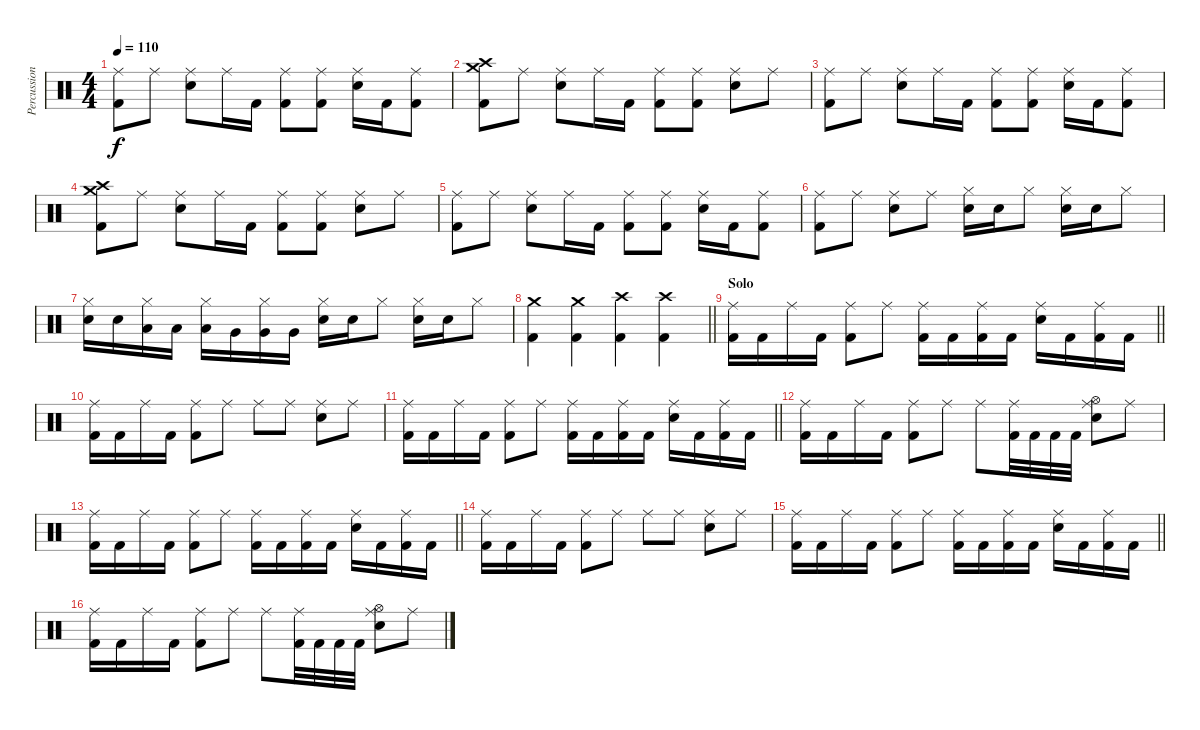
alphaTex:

\track ("Percussion" "Percussion") {instrument percussion}
\staff {score}
\articulation defaults
\ts (4 4)
\tempo 110
\clef neutral
\ks c
("Ride (middle)" "Kick (hit) 2").8{dy f} "Ride (middle)".8 ("Ride (middle)" "Snare (hit) 2").8 "Ride (middle)".16 "Kick (hit) 2".16 ("Ride (middle)" "Kick (hit) 2").8 ("Ride (middle)" "Kick (hit) 2").8 ("Ride (middle)" "Snare (hit) 2").16 "Kick (hit) 2".16 ("Ride (middle)" "Kick (hit) 2").8 |
("Crash medium (hit)" "Crash high (hit)" "Kick (hit) 2").8 "Ride (middle)".8 ("Ride (middle)" "Snare (hit) 2").8 "Ride (middle)".16 "Kick (hit) 2".16 ("Ride (middle)" "Kick (hit) 2").8 ("Ride (middle)" "Kick (hit) 2").8 ("Ride (middle)" "Snare (hit) 2").8 "Ride (middle)".8 |
("Ride (middle)" "Kick (hit) 2").8 "Ride (middle)".8 ("Ride (middle)" "Snare (hit) 2").8 "Ride (middle)".16 "Kick (hit) 2".16 ("Ride (middle)" "Kick (hit) 2").8 ("Ride (middle)" "Kick (hit) 2").8 ("Ride (middle)" "Snare (hit) 2").16 "Kick (hit) 2".16 ("Ride (middle)" "Kick (hit) 2").8 |
("Crash medium (hit)" "Crash high (hit)" "Kick (hit) 2").8 "Ride (middle)".8 ("Ride (middle)" "Snare (hit) 2").8 "Ride (middle)".16 "Kick (hit) 2".16 ("Ride (middle)" "Kick (hit) 2").8 ("Ride (middle)" "Kick (hit) 2").8 ("Ride (middle)" "Snare (hit) 2").8 "Ride (middle)".8 |
("Ride (middle)" "Kick (hit) 2").8 "Ride (middle)".8 ("Ride (middle)" "Snare (hit) 2").8 "Ride (middle)".16 "Kick (hit) 2".16 ("Ride (middle)" "Kick (hit) 2").8 ("Ride (middle)" "Kick (hit) 2").8 ("Ride (middle)" "Snare (hit) 2").16 "Kick (hit) 2".16 ("Ride (middle)" "Kick (hit) 2").8 |
("Ride (middle)" "Kick (hit) 2").8 "Ride (middle)".8 ("Ride (middle)" "Snare (hit) 2").8 "Ride (middle)".8 ("Hi-Hat (closed)" "Snare (hit) 2").16 "Snare (hit) 2".16 "Hi-Hat (closed)".8 ("Hi-Hat (closed)" "Snare (hit) 2").16 "Snare (hit) 2".16 "Hi-Hat (closed)".8 |
("Hi-Hat (closed)" "Snare (hit) 2").16 "Snare (hit) 2".16 ("Hi-Hat (closed)" "Low Tom (hit)").16 "Low Tom (hit)".16 ("Hi-Hat (closed)" "Low Tom (hit)").16 "Very Low Tom (hit)".16 ("Hi-Hat (closed)" "Very Low Tom (hit)").16 "Very Low Tom (hit)".16 ("Hi-Hat (closed)" "Snare (hit) 2").16 "Snare (hit) 2".16 "Hi-Hat (closed)".8 ("Hi-Hat (closed)" "Snare (hit) 2").16 "Snare (hit) 2".16 "Hi-Hat (closed)".8 |
\barLineRight lightlight
("Crash medium (hit)" "Kick (hit) 2").4 ("Crash medium (hit)" "Kick (hit) 2").4 ("Crash high (hit)" "Kick (hit) 2").4 ("Crash high (hit)" "Kick (hit) 2").4 |
\section ("" "Solo")
\barLineRight lightlight
("Ride (middle)" "Kick (hit) 2").16 "Kick (hit) 2".16 "Ride (middle)".16 "Kick (hit) 2".16 ("Ride (middle)" "Kick (hit) 2").8 "Ride (middle)".8 ("Ride (middle)" "Kick (hit) 2").16 "Kick (hit) 2".16 ("Ride (middle)" "Kick (hit) 2").16 "Kick (hit) 2".16 ("Ride (middle)" "Snare (hit) 2").16 "Kick (hit) 2".16 ("Ride (middle)" "Kick (hit) 2").16 "Kick (hit) 2".16 |
("Ride (middle)" "Kick (hit) 2").16 "Kick (hit) 2".16 "Ride (middle)".16 "Kick (hit) 2".16 ("Ride (middle)" "Kick (hit) 2").8 "Ride (middle)".8 "Ride (middle)".8 "Ride (middle)".8 ("Ride (middle)" "Snare (hit) 2").8 "Ride (middle)".8 |
\barLineRight lightlight
("Ride (middle)" "Kick (hit) 2").16 "Kick (hit) 2".16 "Ride (middle)".16 "Kick (hit) 2".16 ("Ride (middle)" "Kick (hit) 2").8 "Ride (middle)".8 ("Ride (middle)" "Kick (hit) 2").16 "Kick (hit) 2".16 ("Ride (middle)" "Kick (hit) 2").16 "Kick (hit) 2".16 ("Ride (middle)" "Snare (hit) 2").16 "Kick (hit) 2".16 ("Ride (middle)" "Kick (hit) 2").16 "Kick (hit) 2".16 |
("Ride (middle)" "Kick (hit) 2").16 "Kick (hit) 2".16 "Ride (middle)".16 "Kick (hit) 2".16 ("Ride (middle)" "Kick (hit) 2").8 "Ride (middle)".8 "Ride (middle)".8 ("Ride (middle)" "Kick (hit) 2").32 "Kick (hit) 2".32 "Kick (hit) 2".32 "Kick (hit) 2".32 ("Ride (middle)" "Hi-Hat (open)" "Snare (hit) 2").8 "Ride (middle)".8 |
\barLineRight lightlight
("Ride (middle)" "Kick (hit) 2").16 "Kick (hit) 2".16 "Ride (middle)".16 "Kick (hit) 2".16 ("Ride (middle)" "Kick (hit) 2").8 "Ride (middle)".8 ("Ride (middle)" "Kick (hit) 2").16 "Kick (hit) 2".16 ("Ride (middle)" "Kick (hit) 2").16 "Kick (hit) 2".16 ("Ride (middle)" "Snare (hit) 2").16 "Kick (hit) 2".16 ("Ride (middle)" "Kick (hit) 2").16 "Kick (hit) 2".16 |
("Ride (middle)" "Kick (hit) 2").16 "Kick (hit) 2".16 "Ride (middle)".16 "Kick (hit) 2".16 ("Ride (middle)" "Kick (hit) 2").8 "Ride (middle)".8 "Ride (middle)".8 "Ride (middle)".8 ("Ride (middle)" "Snare (hit) 2").8 "Ride (middle)".8 |
\barLineRight lightlight
("Ride (middle)" "Kick (hit) 2").16 "Kick (hit) 2".16 "Ride (middle)".16 "Kick (hit) 2".16 ("Ride (middle)" "Kick (hit) 2").8 "Ride (middle)".8 ("Ride (middle)" "Kick (hit) 2").16 "Kick (hit) 2".16 ("Ride (middle)" "Kick (hit) 2").16 "Kick (hit) 2".16 ("Ride (middle)" "Snare (hit) 2").16 "Kick (hit) 2".16 ("Ride (middle)" "Kick (hit) 2").16 "Kick (hit) 2".16 |
("Ride (middle)" "Kick (hit) 2").16 "Kick (hit) 2".16 "Ride (middle)".16 "Kick (hit) 2".16 ("Ride (middle)" "Kick (hit) 2").8 "Ride (middle)".8 "Ride (middle)".8 ("Ride (middle)" "Kick (hit) 2").32 "Kick (hit) 2".32 "Kick (hit) 2".32 "Kick (hit) 2".32 ("Ride (middle)" "Hi-Hat (open)" "Snare (hit) 2").8 "Ride (middle)".8
